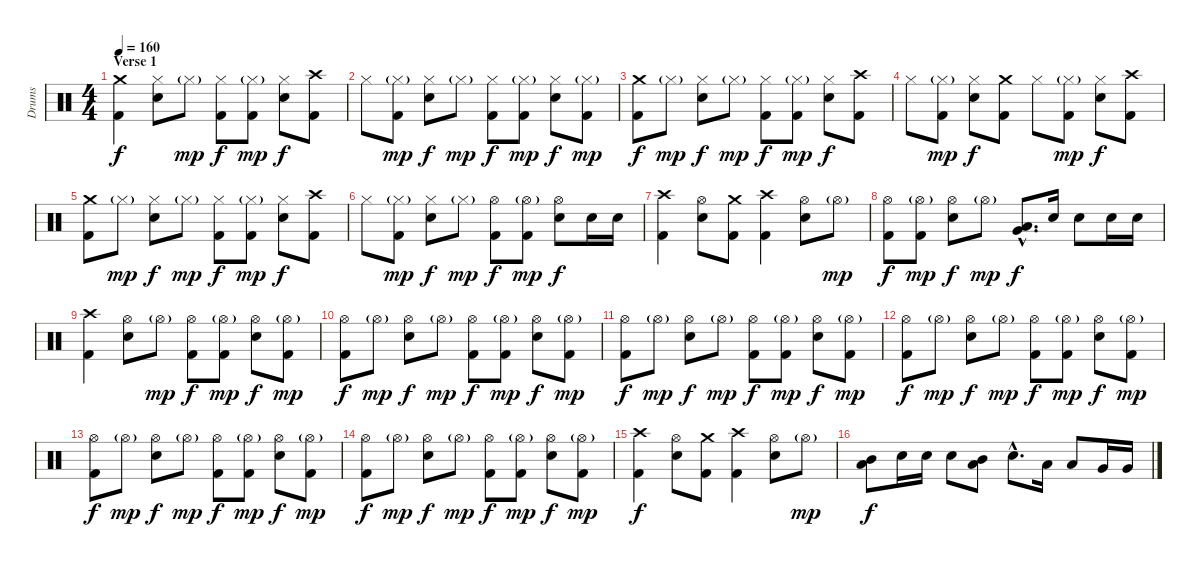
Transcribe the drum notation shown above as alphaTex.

\track ("Drums" "Drums") {instrument percussion}
\staff {score}
\articulation defaults
\ts (4 4)
\section ("" "Verse 1")
\tempo 160
\clef neutral
\ks c
("Crash medium (hit)" "Kick (hit) 2").4{dy f} ("Hi-Hat (closed)" "Snare (hit) 2").8 "Hi-Hat (closed)"{g}.8{dy mp} ("Hi-Hat (closed)" "Kick (hit) 2").8{dy f} ("Hi-Hat (closed)"{g} "Kick (hit) 2").8{dy mp} ("Hi-Hat (closed)" "Snare (hit) 2").8{dy f} ("Crash high (hit)" "Kick (hit) 2").8 |
"Hi-Hat (closed)".8 ("Hi-Hat (closed)"{g} "Kick (hit) 2").8{dy mp} ("Hi-Hat (closed)" "Snare (hit) 2").8{dy f} "Hi-Hat (closed)"{g}.8{dy mp} ("Hi-Hat (closed)" "Kick (hit) 2").8{dy f} ("Hi-Hat (closed)"{g} "Kick (hit) 2").8{dy mp} ("Hi-Hat (closed)" "Snare (hit) 2").8{dy f} ("Hi-Hat (closed)"{g} "Kick (hit) 2").8{dy mp} |
("Crash medium (hit)" "Kick (hit) 2").8{dy f} "Hi-Hat (closed)"{g}.8{dy mp} ("Hi-Hat (closed)" "Snare (hit) 2").8{dy f} "Hi-Hat (closed)"{g}.8{dy mp} ("Hi-Hat (closed)" "Kick (hit) 2").8{dy f} ("Hi-Hat (closed)"{g} "Kick (hit) 2").8{dy mp} ("Hi-Hat (closed)" "Snare (hit) 2").8{dy f} ("Crash high (hit)" "Kick (hit) 2").8 |
"Hi-Hat (closed)".8 ("Hi-Hat (closed)"{g} "Kick (hit) 2").8{dy mp} ("Hi-Hat (closed)" "Snare (hit) 2").8{dy f} ("Crash medium (hit)" "Kick (hit) 2").8 "Hi-Hat (closed)".8 ("Hi-Hat (closed)"{g} "Kick (hit) 2").8{dy mp} ("Hi-Hat (closed)" "Snare (hit) 2").8{dy f} ("Crash high (hit)" "Kick (hit) 2").8 |
("Crash medium (hit)" "Kick (hit) 2").8 "Hi-Hat (closed)"{g}.8{dy mp} ("Hi-Hat (closed)" "Snare (hit) 2").8{dy f} "Hi-Hat (closed)"{g}.8{dy mp} ("Hi-Hat (closed)" "Kick (hit) 2").8{dy f} ("Hi-Hat (closed)"{g} "Kick (hit) 2").8{dy mp} ("Hi-Hat (closed)" "Snare (hit) 2").8{dy f} ("Crash high (hit)" "Kick (hit) 2").8 |
"Hi-Hat (closed)".8 ("Hi-Hat (closed)"{g} "Kick (hit) 2").8{dy mp} ("Hi-Hat (closed)" "Snare (hit) 2").8{dy f} "Hi-Hat (closed)"{g}.8{dy mp} ("Hi-Hat (open)" "Kick (hit) 2").8{dy f} ("Hi-Hat (open)"{g} "Kick (hit) 2").8{dy mp} ("Hi-Hat (open)" "Snare (hit) 2").8{dy f} "Snare (hit) 2".16 "Snare (hit) 2".16 |
("Crash high (hit)" "Kick (hit) 2").4 ("Hi-Hat (open)" "Snare (hit) 2").8 ("Crash medium (hit)" "Kick (hit) 2").8 ("Crash high (hit)" "Kick (hit) 2").4 ("Hi-Hat (open)" "Snare (hit) 2").8 "Hi-Hat (open)"{g}.8{dy mp} |
("Hi-Hat (open)" "Kick (hit) 2").8{dy f} ("Hi-Hat (open)"{g} "Kick (hit) 2").8{dy mp} ("Hi-Hat (open)" "Snare (hit) 2").8{dy f} "Hi-Hat (open)"{g}.8{dy mp} ("Very Low Tom (hit)"{hac} "Low Floor Tom (hit)"{hac}).8{d dy f} "Snare (hit) 2".16 "Snare (hit) 2".8 "Snare (hit) 2".16 "Snare (hit) 2".16 |
("Crash high (hit)" "Kick (hit) 2").4 ("Hi-Hat (open)" "Snare (hit) 2").8 "Hi-Hat (open)"{g}.8{dy mp} ("Hi-Hat (open)" "Kick (hit) 2").8{dy f} ("Hi-Hat (open)"{g} "Kick (hit) 2").8{dy mp} ("Hi-Hat (open)" "Snare (hit) 2").8{dy f} ("Hi-Hat (open)"{g} "Kick (hit) 2").8{dy mp} |
("Hi-Hat (open)" "Kick (hit) 2").8{dy f} "Hi-Hat (open)"{g}.8{dy mp} ("Hi-Hat (open)" "Snare (hit) 2").8{dy f} "Hi-Hat (open)"{g}.8{dy mp} ("Hi-Hat (open)" "Kick (hit) 2").8{dy f} ("Hi-Hat (open)"{g} "Kick (hit) 2").8{dy mp} ("Hi-Hat (open)" "Snare (hit) 2").8{dy f} ("Hi-Hat (open)"{g} "Kick (hit) 2").8{dy mp} |
("Hi-Hat (open)" "Kick (hit) 2").8{dy f} "Hi-Hat (open)"{g}.8{dy mp} ("Hi-Hat (open)" "Snare (hit) 2").8{dy f} "Hi-Hat (open)"{g}.8{dy mp} ("Hi-Hat (open)" "Kick (hit) 2").8{dy f} ("Hi-Hat (open)"{g} "Kick (hit) 2").8{dy mp} ("Hi-Hat (open)" "Snare (hit) 2").8{dy f} ("Hi-Hat (open)"{g} "Kick (hit) 2").8{dy mp} |
("Hi-Hat (open)" "Kick (hit) 2").8{dy f} "Hi-Hat (open)"{g}.8{dy mp} ("Hi-Hat (open)" "Snare (hit) 2").8{dy f} "Hi-Hat (open)"{g}.8{dy mp} ("Hi-Hat (open)" "Kick (hit) 2").8{dy f} ("Hi-Hat (open)"{g} "Kick (hit) 2").8{dy mp} ("Hi-Hat (open)" "Snare (hit) 2").8{dy f} ("Hi-Hat (open)"{g} "Kick (hit) 2").8{dy mp} |
("Hi-Hat (open)" "Kick (hit) 2").8{dy f} "Hi-Hat (open)"{g}.8{dy mp} ("Hi-Hat (open)" "Snare (hit) 2").8{dy f} "Hi-Hat (open)"{g}.8{dy mp} ("Hi-Hat (open)" "Kick (hit) 2").8{dy f} ("Hi-Hat (open)"{g} "Kick (hit) 2").8{dy mp} ("Hi-Hat (open)" "Snare (hit) 2").8{dy f} ("Hi-Hat (open)"{g} "Kick (hit) 2").8{dy mp} |
("Hi-Hat (open)" "Kick (hit) 2").8{dy f} "Hi-Hat (open)"{g}.8{dy mp} ("Hi-Hat (open)" "Snare (hit) 2").8{dy f} "Hi-Hat (open)"{g}.8{dy mp} ("Hi-Hat (open)" "Kick (hit) 2").8{dy f} ("Hi-Hat (open)"{g} "Kick (hit) 2").8{dy mp} ("Hi-Hat (open)" "Snare (hit) 2").8{dy f} ("Hi-Hat (open)"{g} "Kick (hit) 2").8{dy mp} |
("Crash high (hit)" "Kick (hit) 2").4{dy f} ("Hi-Hat (open)" "Snare (hit) 2").8 ("Crash medium (hit)" "Kick (hit) 2").8 ("Crash high (hit)" "Kick (hit) 2").4 ("Hi-Hat (open)" "Snare (hit) 2").8 "Hi-Hat (open)"{g}.8{dy mp} |
("Mid Tom (hit)" "Low Tom (hit)").8{dy f} "Snare (hit) 2".16 "Snare (hit) 2".16 "Snare (hit) 2".8 ("Mid Tom (hit)" "Low Tom (hit)").8 "Snare (hit) 2"{hac}.8{d} "Low Tom (hit)".16 "Low Tom (hit)".8 "Very Low Tom (hit)".16 "Very Low Tom (hit)".16
